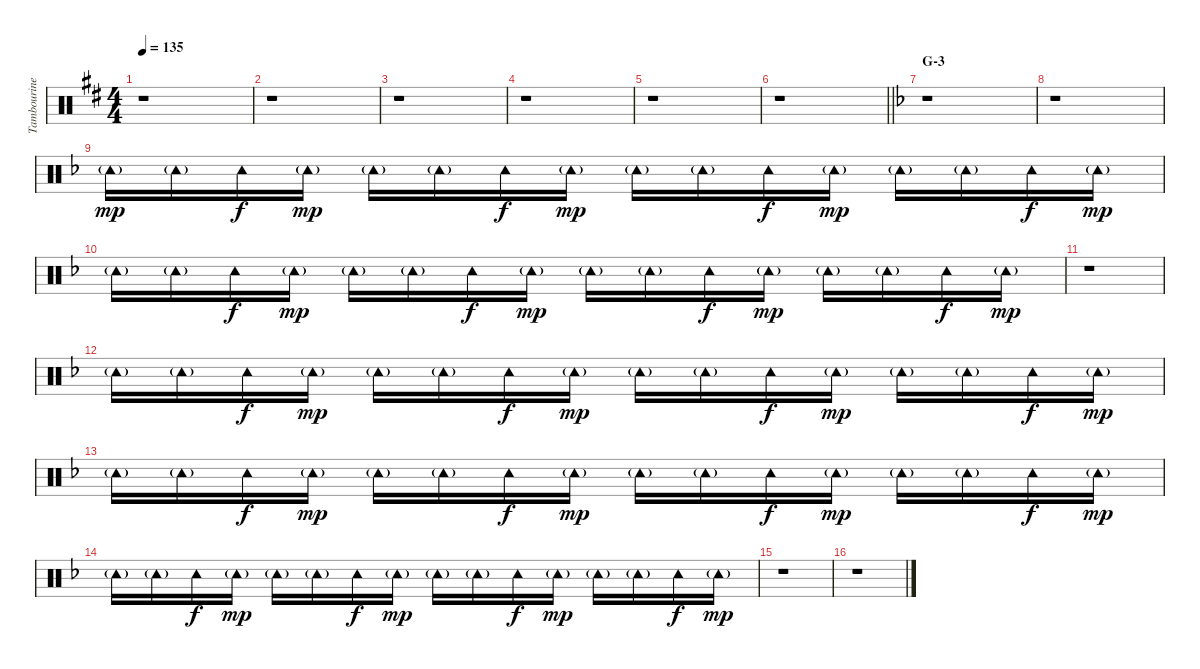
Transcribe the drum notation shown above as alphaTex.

\track ("Tambourine" "Tambourine") {instrument percussion}
\staff {score}
\articulation defaults
\ts (4 4)
\tempo 135
\clef neutral
\ks d
r.1{dy mp} |
r.1 |
r.1 |
r.1 |
r.1 |
\barLineRight lightlight
r.1 |
\section ("" "G-3")
\ks f
r.1 |
r.1 |
"Tambourine (hit)"{g}.16 "Tambourine (hit)"{g}.16 "Tambourine (hit)".16{dy f} "Tambourine (hit)"{g}.16{dy mp} "Tambourine (hit)"{g}.16 "Tambourine (hit)"{g}.16 "Tambourine (hit)".16{dy f} "Tambourine (hit)"{g}.16{dy mp} "Tambourine (hit)"{g}.16 "Tambourine (hit)"{g}.16 "Tambourine (hit)".16{dy f} "Tambourine (hit)"{g}.16{dy mp} "Tambourine (hit)"{g}.16 "Tambourine (hit)"{g}.16 "Tambourine (hit)".16{dy f} "Tambourine (hit)"{g}.16{dy mp} |
"Tambourine (hit)"{g}.16 "Tambourine (hit)"{g}.16 "Tambourine (hit)".16{dy f} "Tambourine (hit)"{g}.16{dy mp} "Tambourine (hit)"{g}.16 "Tambourine (hit)"{g}.16 "Tambourine (hit)".16{dy f} "Tambourine (hit)"{g}.16{dy mp} "Tambourine (hit)"{g}.16 "Tambourine (hit)"{g}.16 "Tambourine (hit)".16{dy f} "Tambourine (hit)"{g}.16{dy mp} "Tambourine (hit)"{g}.16 "Tambourine (hit)"{g}.16 "Tambourine (hit)".16{dy f} "Tambourine (hit)"{g}.16{dy mp} |
r.1 |
"Tambourine (hit)"{g}.16 "Tambourine (hit)"{g}.16 "Tambourine (hit)".16{dy f} "Tambourine (hit)"{g}.16{dy mp} "Tambourine (hit)"{g}.16 "Tambourine (hit)"{g}.16 "Tambourine (hit)".16{dy f} "Tambourine (hit)"{g}.16{dy mp} "Tambourine (hit)"{g}.16 "Tambourine (hit)"{g}.16 "Tambourine (hit)".16{dy f} "Tambourine (hit)"{g}.16{dy mp} "Tambourine (hit)"{g}.16 "Tambourine (hit)"{g}.16 "Tambourine (hit)".16{dy f} "Tambourine (hit)"{g}.16{dy mp} |
"Tambourine (hit)"{g}.16 "Tambourine (hit)"{g}.16 "Tambourine (hit)".16{dy f} "Tambourine (hit)"{g}.16{dy mp} "Tambourine (hit)"{g}.16 "Tambourine (hit)"{g}.16 "Tambourine (hit)".16{dy f} "Tambourine (hit)"{g}.16{dy mp} "Tambourine (hit)"{g}.16 "Tambourine (hit)"{g}.16 "Tambourine (hit)".16{dy f} "Tambourine (hit)"{g}.16{dy mp} "Tambourine (hit)"{g}.16 "Tambourine (hit)"{g}.16 "Tambourine (hit)".16{dy f} "Tambourine (hit)"{g}.16{dy mp} |
"Tambourine (hit)"{g}.16 "Tambourine (hit)"{g}.16 "Tambourine (hit)".16{dy f} "Tambourine (hit)"{g}.16{dy mp} "Tambourine (hit)"{g}.16 "Tambourine (hit)"{g}.16 "Tambourine (hit)".16{dy f} "Tambourine (hit)"{g}.16{dy mp} "Tambourine (hit)"{g}.16 "Tambourine (hit)"{g}.16 "Tambourine (hit)".16{dy f} "Tambourine (hit)"{g}.16{dy mp} "Tambourine (hit)"{g}.16 "Tambourine (hit)"{g}.16 "Tambourine (hit)".16{dy f} "Tambourine (hit)"{g}.16{dy mp} |
r.1 |
r.1
